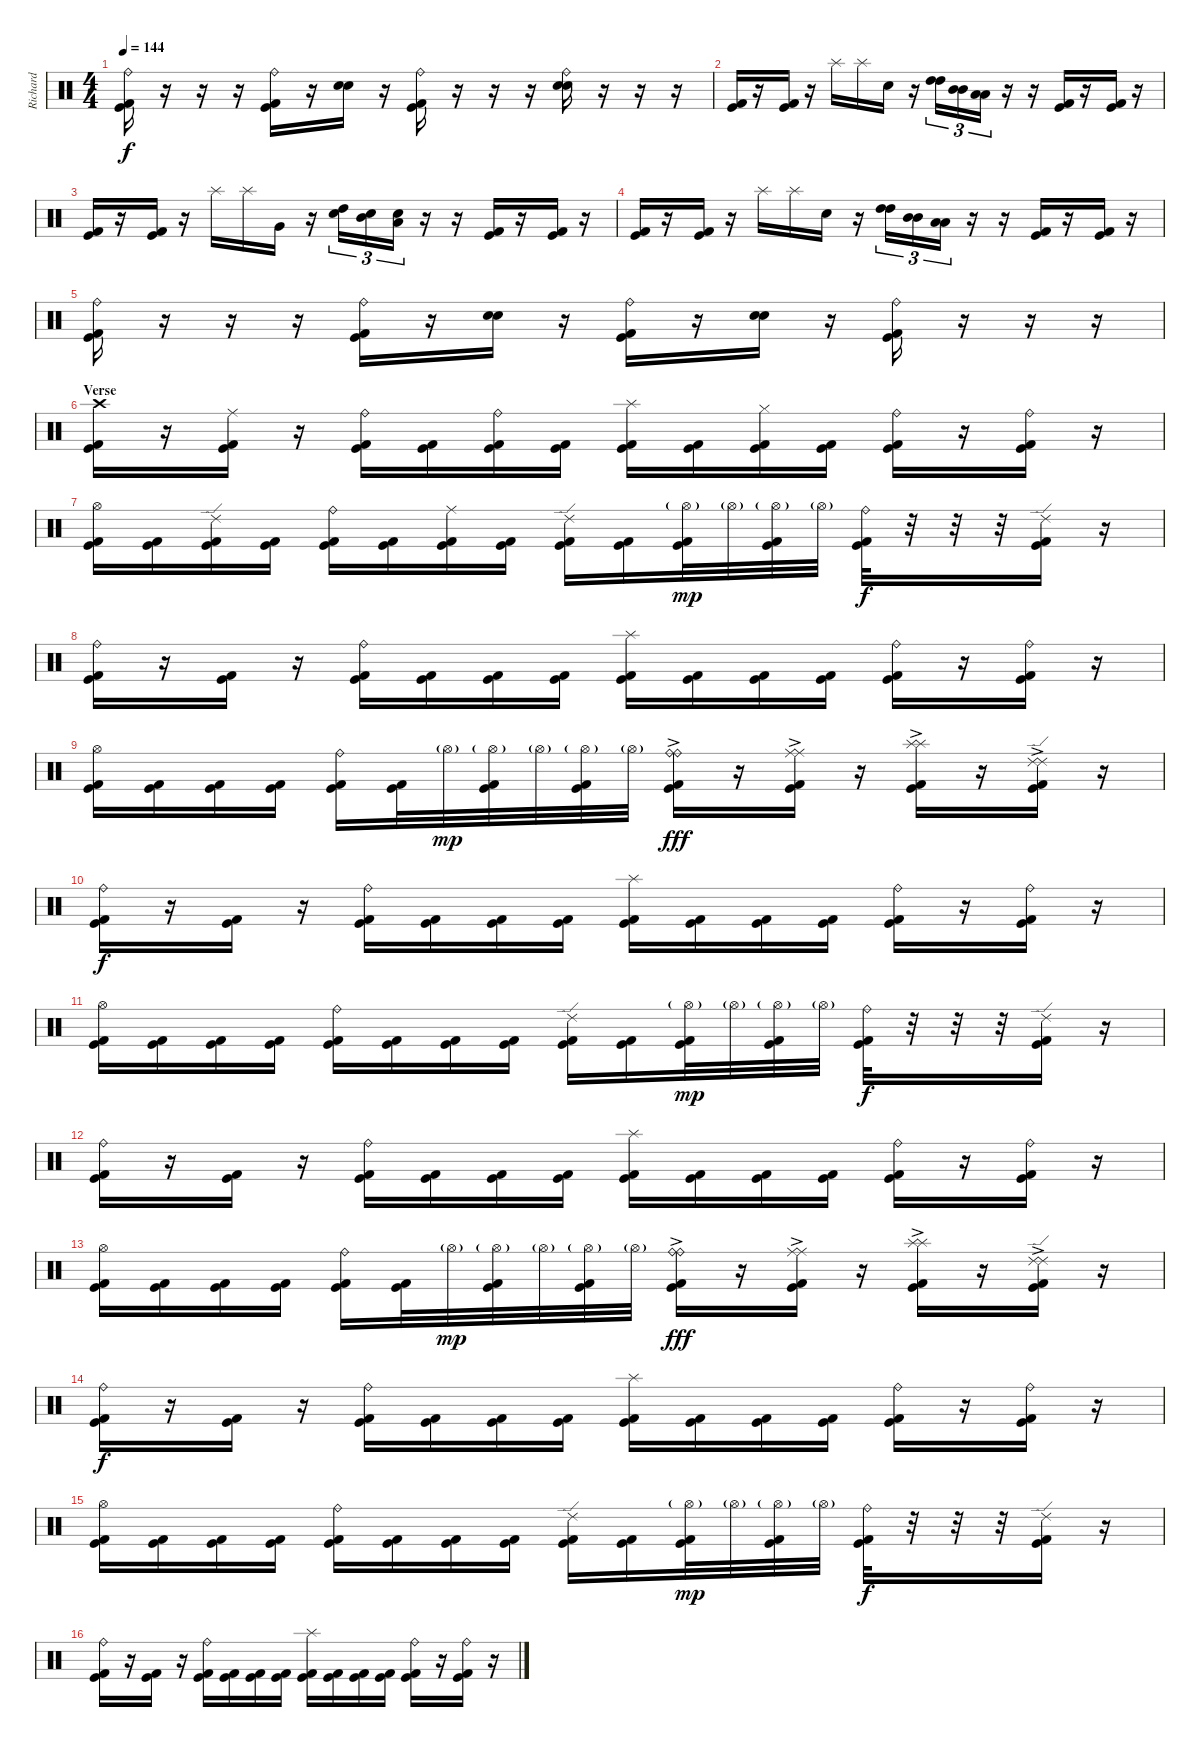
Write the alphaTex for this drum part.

\track ("Richard" "Richard") {instrument percussion}
\staff {score}
\articulation defaults
\ts (4 4)
\tempo 144
\clef neutral
\ks c
("Ride (bell)" "Kick (hit)" "Kick (hit) 2").16{dy f} r.16 r.16 r.16 ("Ride (bell)" "Kick (hit)" "Kick (hit) 2").16 r.16 ("Snare (hit) 2" "Electric Snare (hit)").16 r.16 ("Ride (bell)" "Kick (hit)" "Kick (hit) 2").16 r.16 r.16 r.16 ("Ride (bell)" "Snare (hit) 2" "Electric Snare (hit)").16 r.16 r.16 r.16 |
("Kick (hit) 2" "Kick (hit)").16 r.16 ("Kick (hit) 2" "Kick (hit)").16 r.16 "Splash (hit)".16 "Splash (hit)".16 "Snare (hit) 2".16 r.16 ("High Tom (hit)" "High Tom (hit)").16{tu (3 2)} ("Mid Tom (hit)" "Mid Tom (hit)").16{tu (3 2)} ("Low Tom (hit)" "Low Tom (hit)").16{tu (3 2)} r.16 r.16 ("Kick (hit) 2" "Kick (hit)").16 r.16 ("Kick (hit) 2" "Kick (hit)").16 r.16 |
("Kick (hit) 2" "Kick (hit)").16 r.16 ("Kick (hit) 2" "Kick (hit)").16 r.16 "Splash (hit)".16 "Splash (hit)".16 "Very Low Tom (hit)".16 r.16 ("Snare (hit) 2" "High Tom (hit)").16{tu (3 2)} ("Snare (hit) 2" "Mid Tom (hit)").16{tu (3 2)} ("Snare (hit) 2" "Low Tom (hit)").16{tu (3 2)} r.16 r.16 ("Kick (hit)" "Kick (hit) 2").16 r.16 ("Kick (hit)" "Kick (hit) 2").16 r.16 |
("Kick (hit) 2" "Kick (hit)").16 r.16 ("Kick (hit) 2" "Kick (hit)").16 r.16 "Splash (hit)".16 "Splash (hit)".16 "Snare (hit) 2".16 r.16 ("High Tom (hit)" "High Tom (hit)").16{tu (3 2)} ("Mid Tom (hit)" "Mid Tom (hit)").16{tu (3 2)} ("Low Tom (hit)" "Low Tom (hit)").16{tu (3 2)} r.16 r.16 ("Kick (hit) 2" "Kick (hit)").16 r.16 ("Kick (hit) 2" "Kick (hit)").16 r.16 |
("Ride (bell)" "Kick (hit)" "Kick (hit) 2").16 r.16 r.16 r.16 ("Ride (bell)" "Kick (hit)" "Kick (hit) 2").16 r.16 ("Snare (hit) 2" "Electric Snare (hit)").16 r.16 ("Ride (bell)" "Kick (hit)" "Kick (hit) 2").16 r.16 ("Snare (hit) 2" "Electric Snare (hit)").16 r.16 ("Ride (bell)" "Kick (hit)" "Kick (hit) 2").16 r.16 r.16 r.16 |
\section ("" "Verse")
("Crash high (hit)" "Kick (hit)" "Kick (hit) 2").16 r.16 ("Ride (middle)" "Kick (hit)" "Kick (hit) 2").16 r.16 ("Ride (bell)" "Kick (hit)" "Kick (hit) 2").16 ("Kick (hit)" "Kick (hit) 2").16 ("Ride (bell)" "Kick (hit)" "Kick (hit) 2").16 ("Kick (hit)" "Kick (hit) 2").16 ("Splash (hit)" "Kick (hit)" "Kick (hit) 2").16 ("Kick (hit)" "Kick (hit) 2").16 ("Hi-Hat (closed)" "Kick (hit)" "Kick (hit) 2").16 ("Kick (hit)" "Kick (hit) 2").16 ("Ride (bell)" "Kick (hit)" "Kick (hit) 2").16 r.16 ("Ride (bell)" "Kick (hit)" "Kick (hit) 2").16 r.16 |
("Hi-Hat (open)" "Kick (hit)" "Kick (hit) 2").16 ("Kick (hit)" "Kick (hit) 2").16 ("Ride (edge) 2" "Kick (hit)" "Kick (hit) 2").16 ("Kick (hit)" "Kick (hit) 2").16 ("Ride (bell)" "Kick (hit)" "Kick (hit) 2").16 ("Kick (hit)" "Kick (hit) 2").16 ("Ride (middle)" "Kick (hit)" "Kick (hit) 2").16 ("Kick (hit)" "Kick (hit) 2").16 ("Ride (edge) 2" "Kick (hit)" "Kick (hit) 2").16 ("Kick (hit)" "Kick (hit) 2").16 ("Hi-Hat (open)"{g} "Kick (hit)" "Kick (hit) 2").32{dy mp} "Hi-Hat (open)"{g}.32 ("Hi-Hat (open)"{g} "Kick (hit)" "Kick (hit) 2").32 "Hi-Hat (open)"{g}.32 ("Ride (bell)" "Kick (hit)" "Kick (hit) 2").32{dy f} r.32 r.32 r.32 ("Ride (edge) 2" "Kick (hit)" "Kick (hit) 2").16 r.16 |
("Ride (bell)" "Kick (hit)" "Kick (hit) 2").16 r.16 ("Kick (hit)" "Kick (hit) 2").16 r.16 ("Ride (bell)" "Kick (hit)" "Kick (hit) 2").16 ("Kick (hit)" "Kick (hit) 2").16 ("Kick (hit)" "Kick (hit) 2").16 ("Kick (hit)" "Kick (hit) 2").16 ("Splash (hit)" "Kick (hit)" "Kick (hit) 2").16 ("Kick (hit)" "Kick (hit) 2").16 ("Kick (hit)" "Kick (hit) 2").16 ("Kick (hit)" "Kick (hit) 2").16 ("Ride (bell)" "Kick (hit)" "Kick (hit) 2").16 r.16 ("Ride (bell)" "Kick (hit)" "Kick (hit) 2").16 r.16 |
("Hi-Hat (open)" "Kick (hit)" "Kick (hit) 2").16 ("Kick (hit)" "Kick (hit) 2").16 ("Kick (hit)" "Kick (hit) 2").16 ("Kick (hit)" "Kick (hit) 2").16 ("Ride (bell)" "Kick (hit)" "Kick (hit) 2").16 ("Kick (hit)" "Kick (hit) 2").32 "Hi-Hat (open)"{g}.32{dy mp} ("Hi-Hat (open)"{g} "Kick (hit)" "Kick (hit) 2").32 "Hi-Hat (open)"{g}.32 ("Hi-Hat (open)"{g} "Kick (hit)" "Kick (hit) 2").32 "Hi-Hat (open)"{g}.32 ("Ride (bell)"{ac} "Ride (bell)"{ac} "Kick (hit)" "Kick (hit) 2").16{dy fff} r.16 ("Ride (middle)"{ac} "Ride (middle)"{ac} "Kick (hit)" "Kick (hit) 2").16 r.16 ("Splash (hit)"{ac} "Splash (hit)"{ac} "Kick (hit)" "Kick (hit) 2").16 r.16 ("Ride (edge) 2"{ac} "Ride (edge) 2"{ac} "Kick (hit)" "Kick (hit) 2").16 r.16 |
("Ride (bell)" "Kick (hit)" "Kick (hit) 2").16{dy f} r.16 ("Kick (hit)" "Kick (hit) 2").16 r.16 ("Ride (bell)" "Kick (hit)" "Kick (hit) 2").16 ("Kick (hit)" "Kick (hit) 2").16 ("Kick (hit)" "Kick (hit) 2").16 ("Kick (hit)" "Kick (hit) 2").16 ("Splash (hit)" "Kick (hit)" "Kick (hit) 2").16 ("Kick (hit)" "Kick (hit) 2").16 ("Kick (hit)" "Kick (hit) 2").16 ("Kick (hit)" "Kick (hit) 2").16 ("Ride (bell)" "Kick (hit)" "Kick (hit) 2").16 r.16 ("Ride (bell)" "Kick (hit)" "Kick (hit) 2").16 r.16 |
("Hi-Hat (open)" "Kick (hit)" "Kick (hit) 2").16 ("Kick (hit)" "Kick (hit) 2").16 ("Kick (hit)" "Kick (hit) 2").16 ("Kick (hit)" "Kick (hit) 2").16 ("Ride (bell)" "Kick (hit)" "Kick (hit) 2").16 ("Kick (hit)" "Kick (hit) 2").16 ("Kick (hit)" "Kick (hit) 2").16 ("Kick (hit)" "Kick (hit) 2").16 ("Ride (edge) 2" "Kick (hit)" "Kick (hit) 2").16 ("Kick (hit)" "Kick (hit) 2").16 ("Hi-Hat (open)"{g} "Kick (hit)" "Kick (hit) 2").32{dy mp} "Hi-Hat (open)"{g}.32 ("Hi-Hat (open)"{g} "Kick (hit)" "Kick (hit) 2").32 "Hi-Hat (open)"{g}.32 ("Ride (bell)" "Kick (hit)" "Kick (hit) 2").32{dy f} r.32 r.32 r.32 ("Ride (edge) 2" "Kick (hit)" "Kick (hit) 2").16 r.16 |
("Ride (bell)" "Kick (hit)" "Kick (hit) 2").16 r.16 ("Kick (hit)" "Kick (hit) 2").16 r.16 ("Ride (bell)" "Kick (hit)" "Kick (hit) 2").16 ("Kick (hit)" "Kick (hit) 2").16 ("Kick (hit)" "Kick (hit) 2").16 ("Kick (hit)" "Kick (hit) 2").16 ("Splash (hit)" "Kick (hit)" "Kick (hit) 2").16 ("Kick (hit)" "Kick (hit) 2").16 ("Kick (hit)" "Kick (hit) 2").16 ("Kick (hit)" "Kick (hit) 2").16 ("Ride (bell)" "Kick (hit)" "Kick (hit) 2").16 r.16 ("Ride (bell)" "Kick (hit)" "Kick (hit) 2").16 r.16 |
("Hi-Hat (open)" "Kick (hit)" "Kick (hit) 2").16 ("Kick (hit)" "Kick (hit) 2").16 ("Kick (hit)" "Kick (hit) 2").16 ("Kick (hit)" "Kick (hit) 2").16 ("Ride (bell)" "Kick (hit)" "Kick (hit) 2").16 ("Kick (hit)" "Kick (hit) 2").32 "Hi-Hat (open)"{g}.32{dy mp} ("Hi-Hat (open)"{g} "Kick (hit)" "Kick (hit) 2").32 "Hi-Hat (open)"{g}.32 ("Hi-Hat (open)"{g} "Kick (hit)" "Kick (hit) 2").32 "Hi-Hat (open)"{g}.32 ("Ride (bell)"{ac} "Ride (bell)"{ac} "Kick (hit)" "Kick (hit) 2").16{dy fff} r.16 ("Ride (middle)"{ac} "Ride (middle)"{ac} "Kick (hit)" "Kick (hit) 2").16 r.16 ("Splash (hit)"{ac} "Splash (hit)"{ac} "Kick (hit)" "Kick (hit) 2").16 r.16 ("Ride (edge) 2"{ac} "Ride (edge) 2"{ac} "Kick (hit)" "Kick (hit) 2").16 r.16 |
("Ride (bell)" "Kick (hit)" "Kick (hit) 2").16{dy f} r.16 ("Kick (hit)" "Kick (hit) 2").16 r.16 ("Ride (bell)" "Kick (hit)" "Kick (hit) 2").16 ("Kick (hit)" "Kick (hit) 2").16 ("Kick (hit)" "Kick (hit) 2").16 ("Kick (hit)" "Kick (hit) 2").16 ("Splash (hit)" "Kick (hit)" "Kick (hit) 2").16 ("Kick (hit)" "Kick (hit) 2").16 ("Kick (hit)" "Kick (hit) 2").16 ("Kick (hit)" "Kick (hit) 2").16 ("Ride (bell)" "Kick (hit)" "Kick (hit) 2").16 r.16 ("Ride (bell)" "Kick (hit)" "Kick (hit) 2").16 r.16 |
("Hi-Hat (open)" "Kick (hit)" "Kick (hit) 2").16 ("Kick (hit)" "Kick (hit) 2").16 ("Kick (hit)" "Kick (hit) 2").16 ("Kick (hit)" "Kick (hit) 2").16 ("Ride (bell)" "Kick (hit)" "Kick (hit) 2").16 ("Kick (hit)" "Kick (hit) 2").16 ("Kick (hit)" "Kick (hit) 2").16 ("Kick (hit)" "Kick (hit) 2").16 ("Ride (edge) 2" "Kick (hit)" "Kick (hit) 2").16 ("Kick (hit)" "Kick (hit) 2").16 ("Hi-Hat (open)"{g} "Kick (hit)" "Kick (hit) 2").32{dy mp} "Hi-Hat (open)"{g}.32 ("Hi-Hat (open)"{g} "Kick (hit)" "Kick (hit) 2").32 "Hi-Hat (open)"{g}.32 ("Ride (bell)" "Kick (hit)" "Kick (hit) 2").32{dy f} r.32 r.32 r.32 ("Ride (edge) 2" "Kick (hit)" "Kick (hit) 2").16 r.16 |
("Ride (bell)" "Kick (hit)" "Kick (hit) 2").16 r.16 ("Kick (hit)" "Kick (hit) 2").16 r.16 ("Ride (bell)" "Kick (hit)" "Kick (hit) 2").16 ("Kick (hit)" "Kick (hit) 2").16 ("Kick (hit)" "Kick (hit) 2").16 ("Kick (hit)" "Kick (hit) 2").16 ("Splash (hit)" "Kick (hit)" "Kick (hit) 2").16 ("Kick (hit)" "Kick (hit) 2").16 ("Kick (hit)" "Kick (hit) 2").16 ("Kick (hit)" "Kick (hit) 2").16 ("Ride (bell)" "Kick (hit)" "Kick (hit) 2").16 r.16 ("Ride (bell)" "Kick (hit)" "Kick (hit) 2").16 r.16
